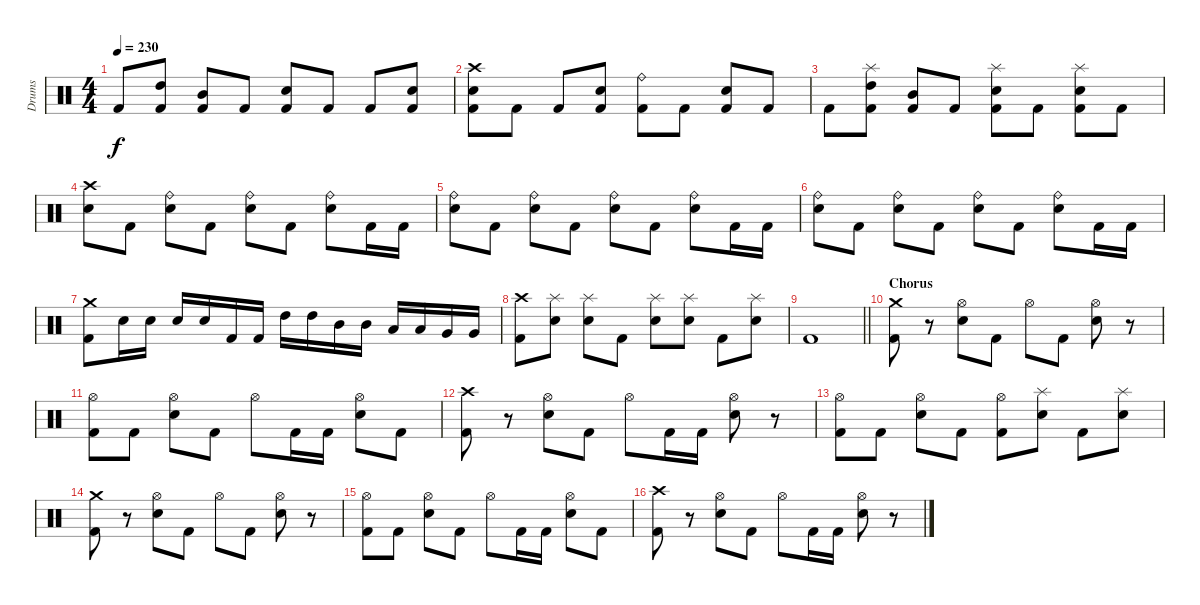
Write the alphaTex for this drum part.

\track ("Drums" "Drums") {instrument percussion}
\staff {score}
\articulation defaults
\ts (4 4)
\tempo 230
\clef neutral
\ks c "Kick (hit) 2".8{dy f}
("High Tom (hit)" "Kick (hit) 2").8 ("Mid Tom (hit)" "Kick (hit) 2").8 "Kick (hit) 2".8 ("Electric Snare (hit)" "Kick (hit) 2").8 "Kick (hit) 2".8 "Kick (hit) 2".8 ("Electric Snare (hit)" "Kick (hit) 2").8 |
("Crash high (hit)" "Electric Snare (hit)" "Kick (hit) 2").8 "Kick (hit) 2".8 "Kick (hit) 2".8 ("Electric Snare (hit)" "Kick (hit) 2").8 ("Ride (bell)" "Kick (hit) 2").8 "Kick (hit) 2".8 ("Electric Snare (hit)" "Kick (hit) 2").8 "Kick (hit) 2".8 |
"Kick (hit) 2".8 ("Splash (hit)" "High Tom (hit)" "Kick (hit) 2").8 ("Mid Tom (hit)" "Kick (hit) 2").8 "Kick (hit) 2".8 ("Splash (hit)" "Electric Snare (hit)" "Kick (hit) 2").8 "Kick (hit) 2".8 ("Splash (hit)" "Electric Snare (hit)" "Kick (hit) 2").8 "Kick (hit) 2".8 |
("Crash high (hit)" "Electric Snare (hit)").8 "Kick (hit) 2".8 ("Ride (bell)" "Electric Snare (hit)").8 "Kick (hit) 2".8 ("Ride (bell)" "Electric Snare (hit)").8 "Kick (hit) 2".8 ("Ride (bell)" "Electric Snare (hit)").8 "Kick (hit) 2".16 "Kick (hit) 2".16 |
("Ride (bell)" "Electric Snare (hit)").8 "Kick (hit) 2".8 ("Ride (bell)" "Electric Snare (hit)").8 "Kick (hit) 2".8 ("Ride (bell)" "Electric Snare (hit)").8 "Kick (hit) 2".8 ("Ride (bell)" "Electric Snare (hit)").8 "Kick (hit) 2".16 "Kick (hit) 2".16 |
("Ride (bell)" "Electric Snare (hit)").8 "Kick (hit) 2".8 ("Ride (bell)" "Electric Snare (hit)").8 "Kick (hit) 2".8 ("Ride (bell)" "Electric Snare (hit)").8 "Kick (hit) 2".8 ("Ride (bell)" "Electric Snare (hit)").8 "Kick (hit) 2".16 "Kick (hit) 2".16 |
("Crash medium (hit)" "Kick (hit) 2").8 "Electric Snare (hit)".16 "Electric Snare (hit)".16 "Electric Snare (hit)".16 "Electric Snare (hit)".16 "Kick (hit) 2".16 "Kick (hit) 2".16 "High Tom (hit)".16 "High Tom (hit)".16 "Mid Tom (hit)".16 "Mid Tom (hit)".16 "Low Tom (hit)".16 "Low Tom (hit)".16 "Very Low Tom (hit)".16 "Very Low Tom (hit)".16 |
("Crash high (hit)" "Kick (hit) 2").8 ("Splash (hit)" "Electric Snare (hit)").8 ("Splash (hit)" "Electric Snare (hit)").8 "Kick (hit) 2".8 ("Splash (hit)" "Electric Snare (hit)").8 ("Splash (hit)" "Electric Snare (hit)").8 "Kick (hit) 2".8 ("Splash (hit)" "Electric Snare (hit)").8 |
\barLineRight lightlight "Kick (hit) 2".1
|
\section ("" "Chorus")
("Crash medium (hit)" "Kick (hit) 2").8 r.8 ("Hi-Hat (open)" "Electric Snare (hit)").8 "Kick (hit) 2".8 "Hi-Hat (open)".8 "Kick (hit) 2".8 ("Hi-Hat (open)" "Electric Snare (hit)").8 r.8 |
("Hi-Hat (open)" "Kick (hit) 2").8 "Kick (hit) 2".8 ("Hi-Hat (open)" "Electric Snare (hit)").8 "Kick (hit) 2".8 "Hi-Hat (open)".8 "Kick (hit) 2".16 "Kick (hit) 2".16 ("Hi-Hat (open)" "Electric Snare (hit)").8 "Kick (hit) 2".8 |
("Crash high (hit)" "Kick (hit) 2").8 r.8 ("Hi-Hat (open)" "Electric Snare (hit)").8 "Kick (hit) 2".8 "Hi-Hat (open)".8 "Kick (hit) 2".16 "Kick (hit) 2".16 ("Hi-Hat (open)" "Electric Snare (hit)").8 r.8 |
("Hi-Hat (open)" "Kick (hit) 2").8 "Kick (hit) 2".8 ("Hi-Hat (open)" "Electric Snare (hit)").8 "Kick (hit) 2".8 ("Hi-Hat (open)" "Kick (hit) 2").8 ("Splash (hit)" "Electric Snare (hit)").8 "Kick (hit) 2".8 ("Splash (hit)" "Electric Snare (hit)").8 |
("Crash medium (hit)" "Kick (hit) 2").8 r.8 ("Hi-Hat (open)" "Electric Snare (hit)").8 "Kick (hit) 2".8 "Hi-Hat (open)".8 "Kick (hit) 2".8 ("Hi-Hat (open)" "Electric Snare (hit)").8 r.8 |
("Hi-Hat (open)" "Kick (hit) 2").8 "Kick (hit) 2".8 ("Hi-Hat (open)" "Electric Snare (hit)").8 "Kick (hit) 2".8 "Hi-Hat (open)".8 "Kick (hit) 2".16 "Kick (hit) 2".16 ("Hi-Hat (open)" "Electric Snare (hit)").8 "Kick (hit) 2".8 |
("Crash high (hit)" "Kick (hit) 2").8 r.8 ("Hi-Hat (open)" "Electric Snare (hit)").8 "Kick (hit) 2".8 "Hi-Hat (open)".8 "Kick (hit) 2".16 "Kick (hit) 2".16 ("Hi-Hat (open)" "Electric Snare (hit)").8 r.8
